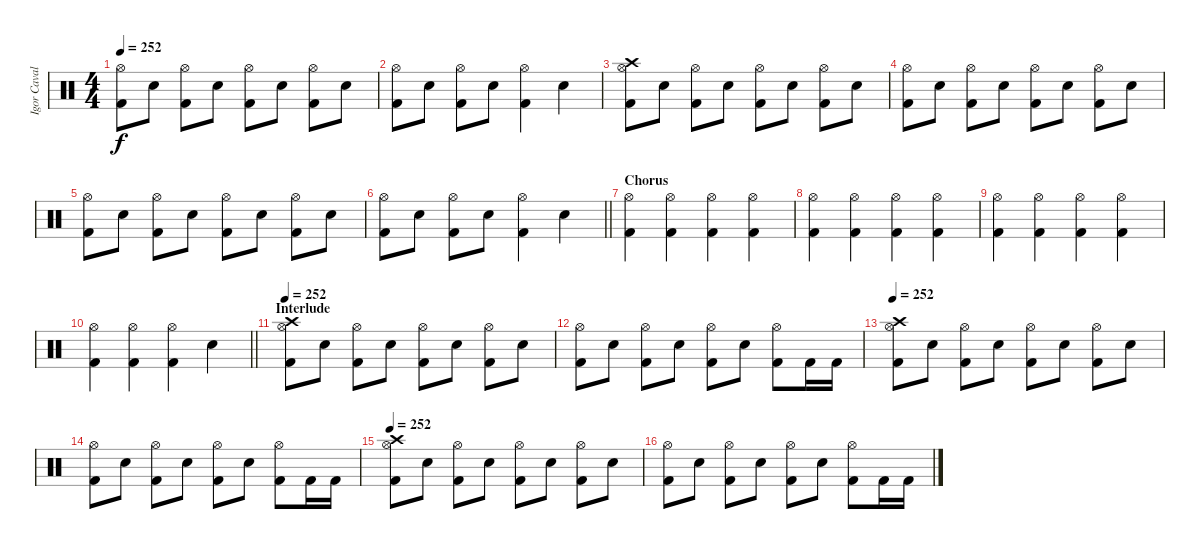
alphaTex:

\track ("Igor Cavalera" "Igor Caval") {instrument percussion}
\staff {score}
\articulation defaults
\ts (4 4)
\tempo 252
\clef neutral
\ks c
("Hi-Hat (open)" "Kick (hit) 2").8{dy f} "Electric Snare (hit)".8 ("Hi-Hat (open)" "Kick (hit) 2").8 "Electric Snare (hit)".8 ("Hi-Hat (open)" "Kick (hit) 2").8 "Electric Snare (hit)".8 ("Hi-Hat (open)" "Kick (hit) 2").8 "Electric Snare (hit)".8 |
("Hi-Hat (open)" "Kick (hit) 2").8 "Electric Snare (hit)".8 ("Hi-Hat (open)" "Kick (hit) 2").8 "Electric Snare (hit)".8 ("Hi-Hat (open)" "Kick (hit) 2").4 "Electric Snare (hit)".4 |
("Crash high (hit)" "Hi-Hat (open)" "Kick (hit) 2").8 "Electric Snare (hit)".8 ("Hi-Hat (open)" "Kick (hit) 2").8 "Electric Snare (hit)".8 ("Hi-Hat (open)" "Kick (hit) 2").8 "Electric Snare (hit)".8 ("Hi-Hat (open)" "Kick (hit) 2").8 "Electric Snare (hit)".8 |
("Hi-Hat (open)" "Kick (hit) 2").8 "Electric Snare (hit)".8 ("Hi-Hat (open)" "Kick (hit) 2").8 "Electric Snare (hit)".8 ("Hi-Hat (open)" "Kick (hit) 2").8 "Electric Snare (hit)".8 ("Hi-Hat (open)" "Kick (hit) 2").8 "Electric Snare (hit)".8 |
("Hi-Hat (open)" "Kick (hit) 2").8 "Electric Snare (hit)".8 ("Hi-Hat (open)" "Kick (hit) 2").8 "Electric Snare (hit)".8 ("Hi-Hat (open)" "Kick (hit) 2").8 "Electric Snare (hit)".8 ("Hi-Hat (open)" "Kick (hit) 2").8 "Electric Snare (hit)".8 |
\barLineRight lightlight
("Hi-Hat (open)" "Kick (hit) 2").8 "Electric Snare (hit)".8 ("Hi-Hat (open)" "Kick (hit) 2").8 "Electric Snare (hit)".8 ("Hi-Hat (open)" "Kick (hit) 2").4 "Electric Snare (hit)".4 |
\section ("" "Chorus")
("Hi-Hat (open)" "Kick (hit) 2").4 ("Hi-Hat (open)" "Kick (hit) 2").4 ("Hi-Hat (open)" "Kick (hit) 2").4 ("Hi-Hat (open)" "Kick (hit) 2").4 |
("Hi-Hat (open)" "Kick (hit) 2").4 ("Hi-Hat (open)" "Kick (hit) 2").4 ("Hi-Hat (open)" "Kick (hit) 2").4 ("Hi-Hat (open)" "Kick (hit) 2").4 |
("Hi-Hat (open)" "Kick (hit) 2").4 ("Hi-Hat (open)" "Kick (hit) 2").4 ("Hi-Hat (open)" "Kick (hit) 2").4 ("Hi-Hat (open)" "Kick (hit) 2").4 |
\barLineRight lightlight
("Hi-Hat (open)" "Kick (hit) 2").4 ("Hi-Hat (open)" "Kick (hit) 2").4 ("Hi-Hat (open)" "Kick (hit) 2").4 "Electric Snare (hit)".4 |
\section ("" "Interlude")
\tempo 252
("Crash high (hit)" "Hi-Hat (open)" "Kick (hit) 2").8 "Electric Snare (hit)".8 ("Hi-Hat (open)" "Kick (hit) 2").8 "Electric Snare (hit)".8 ("Hi-Hat (open)" "Kick (hit) 2").8 "Electric Snare (hit)".8 ("Hi-Hat (open)" "Kick (hit) 2").8 "Electric Snare (hit)".8 |
("Hi-Hat (open)" "Kick (hit) 2").8 "Electric Snare (hit)".8 ("Hi-Hat (open)" "Kick (hit) 2").8 "Electric Snare (hit)".8 ("Hi-Hat (open)" "Kick (hit) 2").8 "Electric Snare (hit)".8 ("Hi-Hat (open)" "Kick (hit) 2").8 "Kick (hit) 2".16 "Kick (hit) 2".16 |
\tempo 252
("Crash high (hit)" "Hi-Hat (open)" "Kick (hit) 2").8 "Electric Snare (hit)".8 ("Hi-Hat (open)" "Kick (hit) 2").8 "Electric Snare (hit)".8 ("Hi-Hat (open)" "Kick (hit) 2").8 "Electric Snare (hit)".8 ("Hi-Hat (open)" "Kick (hit) 2").8 "Electric Snare (hit)".8 |
("Hi-Hat (open)" "Kick (hit) 2").8 "Electric Snare (hit)".8 ("Hi-Hat (open)" "Kick (hit) 2").8 "Electric Snare (hit)".8 ("Hi-Hat (open)" "Kick (hit) 2").8 "Electric Snare (hit)".8 ("Hi-Hat (open)" "Kick (hit) 2").8 "Kick (hit) 2".16 "Kick (hit) 2".16 |
\tempo 252
("Crash high (hit)" "Hi-Hat (open)" "Kick (hit) 2").8 "Electric Snare (hit)".8 ("Hi-Hat (open)" "Kick (hit) 2").8 "Electric Snare (hit)".8 ("Hi-Hat (open)" "Kick (hit) 2").8 "Electric Snare (hit)".8 ("Hi-Hat (open)" "Kick (hit) 2").8 "Electric Snare (hit)".8 |
("Hi-Hat (open)" "Kick (hit) 2").8 "Electric Snare (hit)".8 ("Hi-Hat (open)" "Kick (hit) 2").8 "Electric Snare (hit)".8 ("Hi-Hat (open)" "Kick (hit) 2").8 "Electric Snare (hit)".8 ("Hi-Hat (open)" "Kick (hit) 2").8 "Kick (hit) 2".16 "Kick (hit) 2".16
